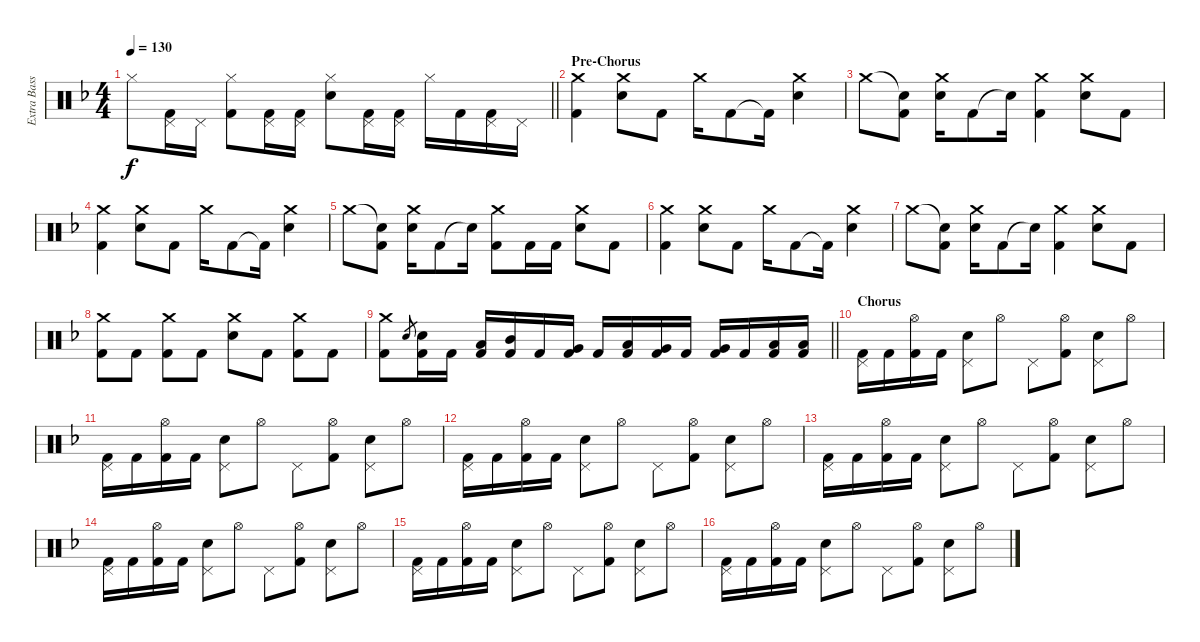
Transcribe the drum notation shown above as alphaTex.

\track ("Extra BassDrum" "Extra Bass") {instrument percussion}
\staff {score}
\articulation defaults
\ts (4 4)
\tempo 130
\clef neutral
\barLineRight lightlight
\ks f "Hi-Hat (closed)".8{dy f}
("Pedal Hi-Hat (hit)" "Kick (hit) 2").16 "Pedal Hi-Hat (hit)".16 ("Hi-Hat (closed)" "Kick (hit) 2").8 ("Pedal Hi-Hat (hit)" "Kick (hit) 2").16 ("Pedal Hi-Hat (hit)" "Kick (hit) 2").16 ("Hi-Hat (closed)" "Snare (hit) 2").8 ("Pedal Hi-Hat (hit)" "Kick (hit) 2").16 ("Pedal Hi-Hat (hit)" "Kick (hit) 2").16 "Hi-Hat (closed)".16 "Kick (hit) 2".16 ("Pedal Hi-Hat (hit)" "Kick (hit) 2").16 "Pedal Hi-Hat (hit)".16 |
\section ("" "Pre-Chorus")
("Crash medium (hit)" "Kick (hit) 2").4 ("Crash medium (hit)" "Snare (hit) 2").8 "Kick (hit) 2".8 "Crash medium (hit)".16 "Kick (hit) 2".8 "Kick (hit) 2"{t}.16 ("Crash medium (hit)" "Snare (hit) 2").4 |
"Crash medium (hit)".8 ("Snare (hit)"{t} "Kick (hit) 2").8 ("Crash medium (hit)" "Snare (hit) 2").16 "Kick (hit) 2".8 "Snare (hit)"{t}.16 ("Crash medium (hit)" "Kick (hit) 2").4 ("Crash medium (hit)" "Snare (hit) 2").8 "Kick (hit) 2".8 |
("Crash medium (hit)" "Kick (hit) 2").4 ("Crash medium (hit)" "Snare (hit) 2").8 "Kick (hit) 2".8 "Crash medium (hit)".16 "Kick (hit) 2".8 "Kick (hit) 2"{t}.16 ("Crash medium (hit)" "Snare (hit) 2").4 |
"Crash medium (hit)".8 ("Snare (hit)"{t} "Kick (hit) 2").8 ("Crash medium (hit)" "Snare (hit) 2").16 "Kick (hit) 2".8 "Snare (hit)"{t}.16 ("Crash medium (hit)" "Kick (hit) 2").8 "Kick (hit) 2".16 "Kick (hit) 2".16 ("Crash medium (hit)" "Snare (hit) 2").8 "Kick (hit) 2".8 |
("Crash medium (hit)" "Kick (hit) 2").4 ("Crash medium (hit)" "Snare (hit) 2").8 "Kick (hit) 2".8 "Crash medium (hit)".16 "Kick (hit) 2".8 "Kick (hit) 2"{t}.16 ("Crash medium (hit)" "Snare (hit) 2").4 |
"Crash medium (hit)".8 ("Snare (hit)"{t} "Kick (hit) 2").8 ("Crash medium (hit)" "Snare (hit) 2").16 "Kick (hit) 2".8 "Snare (hit)"{t}.16 ("Crash medium (hit)" "Kick (hit) 2").4 ("Crash medium (hit)" "Snare (hit) 2").8 "Kick (hit) 2".8 |
("Crash medium (hit)" "Kick (hit) 2").8 "Kick (hit) 2".8 ("Crash medium (hit)" "Kick (hit) 2").8 "Kick (hit) 2".8 ("Crash medium (hit)" "Snare (hit) 2").8 "Kick (hit) 2".8 ("Crash medium (hit)" "Kick (hit) 2").8 "Kick (hit) 2".8 |
\barLineRight lightlight
("Crash medium (hit)" "Kick (hit) 2").8 "Snare (hit) 2".8{gr} ("Snare (hit) 2" "Kick (hit) 2").16 "Kick (hit) 2".16 ("Low Tom (hit)" "Kick (hit) 2").16 ("Mid Tom (hit)" "Kick (hit) 2").16 "Kick (hit) 2".16 ("Very Low Tom (hit)" "Kick (hit) 2").16 "Kick (hit) 2".16 ("Low Floor Tom (hit)" "Kick (hit) 2").16 ("Very Low Tom (hit)" "Kick (hit) 2").16 "Kick (hit) 2".16 ("Very Low Tom (hit)" "Kick (hit) 2").16 "Kick (hit) 2".16 ("Low Floor Tom (hit)" "Kick (hit) 2").16 ("Low Floor Tom (hit)" "Kick (hit) 2").16 |
\section ("" "Chorus")
("Pedal Hi-Hat (hit)" "Kick (hit) 2").16 "Kick (hit) 2".16 ("Hi-Hat (open)" "Kick (hit) 2").16 "Kick (hit) 2".16 ("Pedal Hi-Hat (hit)" "Snare (hit) 2").8 "Hi-Hat (open)".8 "Pedal Hi-Hat (hit)".8 ("Hi-Hat (open)" "Kick (hit) 2").8 ("Pedal Hi-Hat (hit)" "Snare (hit) 2").8 "Hi-Hat (open)".8 |
("Pedal Hi-Hat (hit)" "Kick (hit) 2").16 "Kick (hit) 2".16 ("Hi-Hat (open)" "Kick (hit) 2").16 "Kick (hit) 2".16 ("Pedal Hi-Hat (hit)" "Snare (hit) 2").8 "Hi-Hat (open)".8 "Pedal Hi-Hat (hit)".8 ("Hi-Hat (open)" "Kick (hit) 2").8 ("Pedal Hi-Hat (hit)" "Snare (hit) 2").8 "Hi-Hat (open)".8 |
("Pedal Hi-Hat (hit)" "Kick (hit) 2").16 "Kick (hit) 2".16 ("Hi-Hat (open)" "Kick (hit) 2").16 "Kick (hit) 2".16 ("Pedal Hi-Hat (hit)" "Snare (hit) 2").8 "Hi-Hat (open)".8 "Pedal Hi-Hat (hit)".8 ("Hi-Hat (open)" "Kick (hit) 2").8 ("Pedal Hi-Hat (hit)" "Snare (hit) 2").8 "Hi-Hat (open)".8 |
("Pedal Hi-Hat (hit)" "Kick (hit) 2").16 "Kick (hit) 2".16 ("Hi-Hat (open)" "Kick (hit) 2").16 "Kick (hit) 2".16 ("Pedal Hi-Hat (hit)" "Snare (hit) 2").8 "Hi-Hat (open)".8 "Pedal Hi-Hat (hit)".8 ("Hi-Hat (open)" "Kick (hit) 2").8 ("Pedal Hi-Hat (hit)" "Snare (hit) 2").8 "Hi-Hat (open)".8 |
("Pedal Hi-Hat (hit)" "Kick (hit) 2").16 "Kick (hit) 2".16 ("Hi-Hat (open)" "Kick (hit) 2").16 "Kick (hit) 2".16 ("Pedal Hi-Hat (hit)" "Snare (hit) 2").8 "Hi-Hat (open)".8 "Pedal Hi-Hat (hit)".8 ("Hi-Hat (open)" "Kick (hit) 2").8 ("Pedal Hi-Hat (hit)" "Snare (hit) 2").8 "Hi-Hat (open)".8 |
("Pedal Hi-Hat (hit)" "Kick (hit) 2").16 "Kick (hit) 2".16 ("Hi-Hat (open)" "Kick (hit) 2").16 "Kick (hit) 2".16 ("Pedal Hi-Hat (hit)" "Snare (hit) 2").8 "Hi-Hat (open)".8 "Pedal Hi-Hat (hit)".8 ("Hi-Hat (open)" "Kick (hit) 2").8 ("Pedal Hi-Hat (hit)" "Snare (hit) 2").8 "Hi-Hat (open)".8 |
("Pedal Hi-Hat (hit)" "Kick (hit) 2").16 "Kick (hit) 2".16 ("Hi-Hat (open)" "Kick (hit) 2").16 "Kick (hit) 2".16 ("Pedal Hi-Hat (hit)" "Snare (hit) 2").8 "Hi-Hat (open)".8 "Pedal Hi-Hat (hit)".8 ("Hi-Hat (open)" "Kick (hit) 2").8 ("Pedal Hi-Hat (hit)" "Snare (hit) 2").8 "Hi-Hat (open)".8
